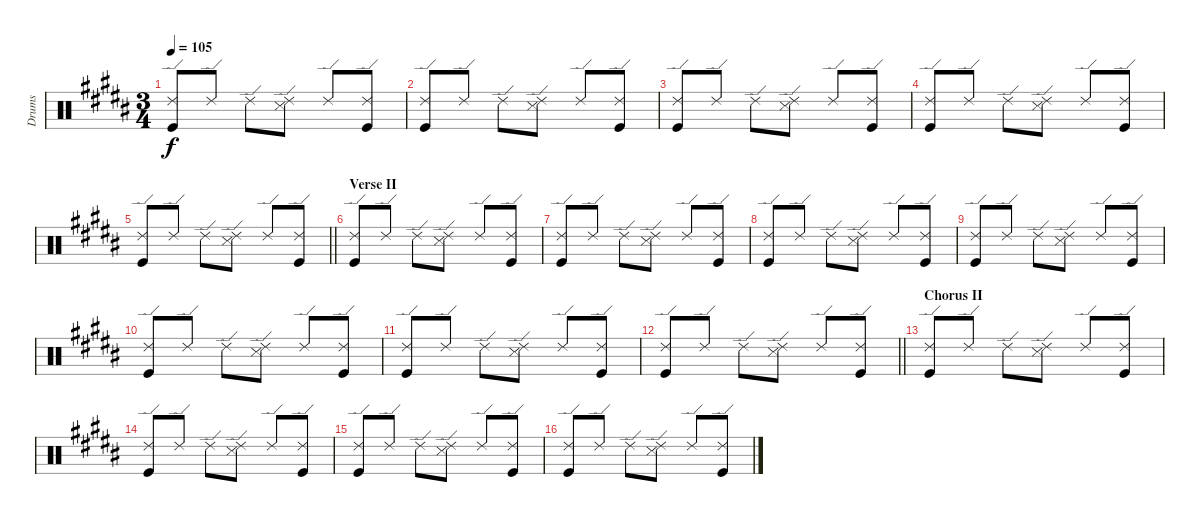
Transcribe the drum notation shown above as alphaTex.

\track ("Drums" "Drums") {instrument percussion}
\staff {score}
\articulation defaults
\ts (3 4)
\tempo 105
\clef neutral
\ks b
("Ride (edge) 2" "Kick (hit)").8{dy f} "Ride (edge) 2".8 "Ride (edge) 2".8 ("Ride (edge) 2" "Snare (side stick) 3").8 "Ride (edge) 2".8 ("Ride (edge) 2" "Kick (hit)").8 |
("Ride (edge) 2" "Kick (hit)").8 "Ride (edge) 2".8 "Ride (edge) 2".8 ("Ride (edge) 2" "Snare (side stick) 3").8 "Ride (edge) 2".8 ("Ride (edge) 2" "Kick (hit)").8 |
("Ride (edge) 2" "Kick (hit)").8 "Ride (edge) 2".8 "Ride (edge) 2".8 ("Ride (edge) 2" "Snare (side stick) 3").8 "Ride (edge) 2".8 ("Ride (edge) 2" "Kick (hit)").8 |
("Ride (edge) 2" "Kick (hit)").8 "Ride (edge) 2".8 "Ride (edge) 2".8 ("Ride (edge) 2" "Snare (side stick) 3").8 "Ride (edge) 2".8 ("Ride (edge) 2" "Kick (hit)").8 |
\barLineRight lightlight
("Ride (edge) 2" "Kick (hit)").8 "Ride (edge) 2".8 "Ride (edge) 2".8 ("Ride (edge) 2" "Snare (side stick) 3").8 "Ride (edge) 2".8 ("Ride (edge) 2" "Kick (hit)").8 |
\section ("" "Verse II")
("Ride (edge) 2" "Kick (hit)").8 "Ride (edge) 2".8 "Ride (edge) 2".8 ("Ride (edge) 2" "Snare (side stick) 3").8 "Ride (edge) 2".8 ("Ride (edge) 2" "Kick (hit)").8 |
("Ride (edge) 2" "Kick (hit)").8 "Ride (edge) 2".8 "Ride (edge) 2".8 ("Ride (edge) 2" "Snare (side stick) 3").8 "Ride (edge) 2".8 ("Ride (edge) 2" "Kick (hit)").8 |
("Ride (edge) 2" "Kick (hit)").8 "Ride (edge) 2".8 "Ride (edge) 2".8 ("Ride (edge) 2" "Snare (side stick) 3").8 "Ride (edge) 2".8 ("Ride (edge) 2" "Kick (hit)").8 |
("Ride (edge) 2" "Kick (hit)").8 "Ride (edge) 2".8 "Ride (edge) 2".8 ("Ride (edge) 2" "Snare (side stick) 3").8 "Ride (edge) 2".8 ("Ride (edge) 2" "Kick (hit)").8 |
("Ride (edge) 2" "Kick (hit)").8 "Ride (edge) 2".8 "Ride (edge) 2".8 ("Ride (edge) 2" "Snare (side stick) 3").8 "Ride (edge) 2".8 ("Ride (edge) 2" "Kick (hit)").8 |
("Ride (edge) 2" "Kick (hit)").8 "Ride (edge) 2".8 "Ride (edge) 2".8 ("Ride (edge) 2" "Snare (side stick) 3").8 "Ride (edge) 2".8 ("Ride (edge) 2" "Kick (hit)").8 |
\barLineRight lightlight
("Ride (edge) 2" "Kick (hit)").8 "Ride (edge) 2".8 "Ride (edge) 2".8 ("Ride (edge) 2" "Snare (side stick) 3").8 "Ride (edge) 2".8 ("Ride (edge) 2" "Kick (hit)").8 |
\section ("" "Chorus II")
("Ride (edge) 2" "Kick (hit)").8 "Ride (edge) 2".8 "Ride (edge) 2".8 ("Ride (edge) 2" "Snare (side stick) 3").8 "Ride (edge) 2".8 ("Ride (edge) 2" "Kick (hit)").8 |
("Ride (edge) 2" "Kick (hit)").8 "Ride (edge) 2".8 "Ride (edge) 2".8 ("Ride (edge) 2" "Snare (side stick) 3").8 "Ride (edge) 2".8 ("Ride (edge) 2" "Kick (hit)").8 |
("Ride (edge) 2" "Kick (hit)").8 "Ride (edge) 2".8 "Ride (edge) 2".8 ("Ride (edge) 2" "Snare (side stick) 3").8 "Ride (edge) 2".8 ("Ride (edge) 2" "Kick (hit)").8 |
("Ride (edge) 2" "Kick (hit)").8 "Ride (edge) 2".8 "Ride (edge) 2".8 ("Ride (edge) 2" "Snare (side stick) 3").8 "Ride (edge) 2".8 ("Ride (edge) 2" "Kick (hit)").8
